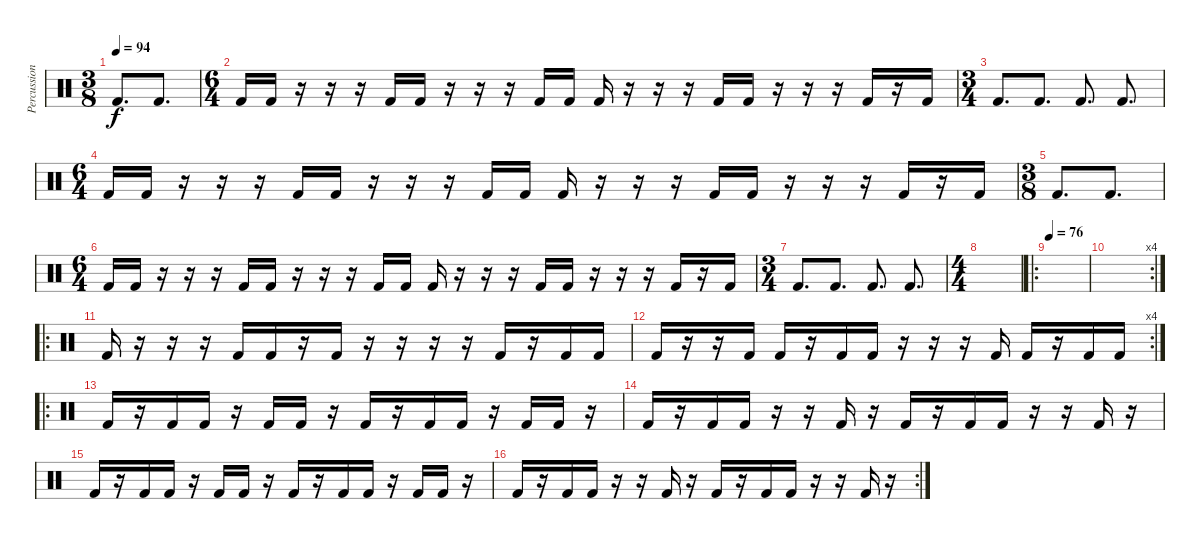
\track ("Percussion" "Percussion") {instrument percussion}
\staff {score}
\articulation defaults
\ts (3 8)
\tempo 94
\clef neutral
\ks c "Kick (hit) 2".8{d dy f} "Kick (hit) 2".8{d}
|
\ts (6 4)
"Kick (hit) 2".16 "Kick (hit) 2".16 r.16 r.16 r.16 "Kick (hit) 2".16 "Kick (hit) 2".16 r.16 r.16 r.16 "Kick (hit) 2".16 "Kick (hit) 2".16 "Kick (hit) 2".16 r.16 r.16 r.16 "Kick (hit) 2".16 "Kick (hit) 2".16 r.16 r.16 r.16 "Kick (hit) 2".16 r.16 "Kick (hit) 2".16 |
\ts (3 4)
"Kick (hit) 2".8{d} "Kick (hit) 2".8{d} "Kick (hit) 2".8{d} "Kick (hit) 2".8{d} |
\ts (6 4)
"Kick (hit) 2".16 "Kick (hit) 2".16 r.16 r.16 r.16 "Kick (hit) 2".16 "Kick (hit) 2".16 r.16 r.16 r.16 "Kick (hit) 2".16 "Kick (hit) 2".16 "Kick (hit) 2".16 r.16 r.16 r.16 "Kick (hit) 2".16 "Kick (hit) 2".16 r.16 r.16 r.16 "Kick (hit) 2".16 r.16 "Kick (hit) 2".16 |
\ts (3 8)
"Kick (hit) 2".8{d} "Kick (hit) 2".8{d} |
\ts (6 4)
"Kick (hit) 2".16 "Kick (hit) 2".16 r.16 r.16 r.16 "Kick (hit) 2".16 "Kick (hit) 2".16 r.16 r.16 r.16 "Kick (hit) 2".16 "Kick (hit) 2".16 "Kick (hit) 2".16 r.16 r.16 r.16 "Kick (hit) 2".16 "Kick (hit) 2".16 r.16 r.16 r.16 "Kick (hit) 2".16 r.16 "Kick (hit) 2".16 |
\ts (3 4)
"Kick (hit) 2".8{d} "Kick (hit) 2".8{d} "Kick (hit) 2".8{d} "Kick (hit) 2".8{d} |
\ts (4 4)
|
\ro
\tempo 76
|
\rc 4
|
\ro "Kick (hit) 2".16
r.16 r.16 r.16 "Kick (hit) 2".16 "Kick (hit) 2".16 r.16 "Kick (hit) 2".16 r.16 r.16 r.16 r.16 "Kick (hit) 2".16 r.16 "Kick (hit) 2".16 "Kick (hit) 2".16 |
\rc 4 "Kick (hit) 2".16
r.16 r.16 "Kick (hit) 2".16 "Kick (hit) 2".16 r.16 "Kick (hit) 2".16 "Kick (hit) 2".16 r.16 r.16 r.16 "Kick (hit) 2".16 "Kick (hit) 2".16 r.16 "Kick (hit) 2".16 "Kick (hit) 2".16 |
\ro "Kick (hit) 2".16
r.16 "Kick (hit) 2".16 "Kick (hit) 2".16 r.16 "Kick (hit) 2".16 "Kick (hit) 2".16 r.16 "Kick (hit) 2".16 r.16 "Kick (hit) 2".16 "Kick (hit) 2".16 r.16 "Kick (hit) 2".16 "Kick (hit) 2".16 r.16 |
"Kick (hit) 2".16 r.16 "Kick (hit) 2".16 "Kick (hit) 2".16 r.16 r.16 "Kick (hit) 2".16 r.16 "Kick (hit) 2".16 r.16 "Kick (hit) 2".16 "Kick (hit) 2".16 r.16 r.16 "Kick (hit) 2".16 r.16 |
"Kick (hit) 2".16 r.16 "Kick (hit) 2".16 "Kick (hit) 2".16 r.16 "Kick (hit) 2".16 "Kick (hit) 2".16 r.16 "Kick (hit) 2".16 r.16 "Kick (hit) 2".16 "Kick (hit) 2".16 r.16 "Kick (hit) 2".16 "Kick (hit) 2".16 r.16 |
\rc 2 "Kick (hit) 2".16
r.16 "Kick (hit) 2".16 "Kick (hit) 2".16 r.16 r.16 "Kick (hit) 2".16 r.16 "Kick (hit) 2".16 r.16 "Kick (hit) 2".16 "Kick (hit) 2".16 r.16 r.16 "Kick (hit) 2".16 r.16
